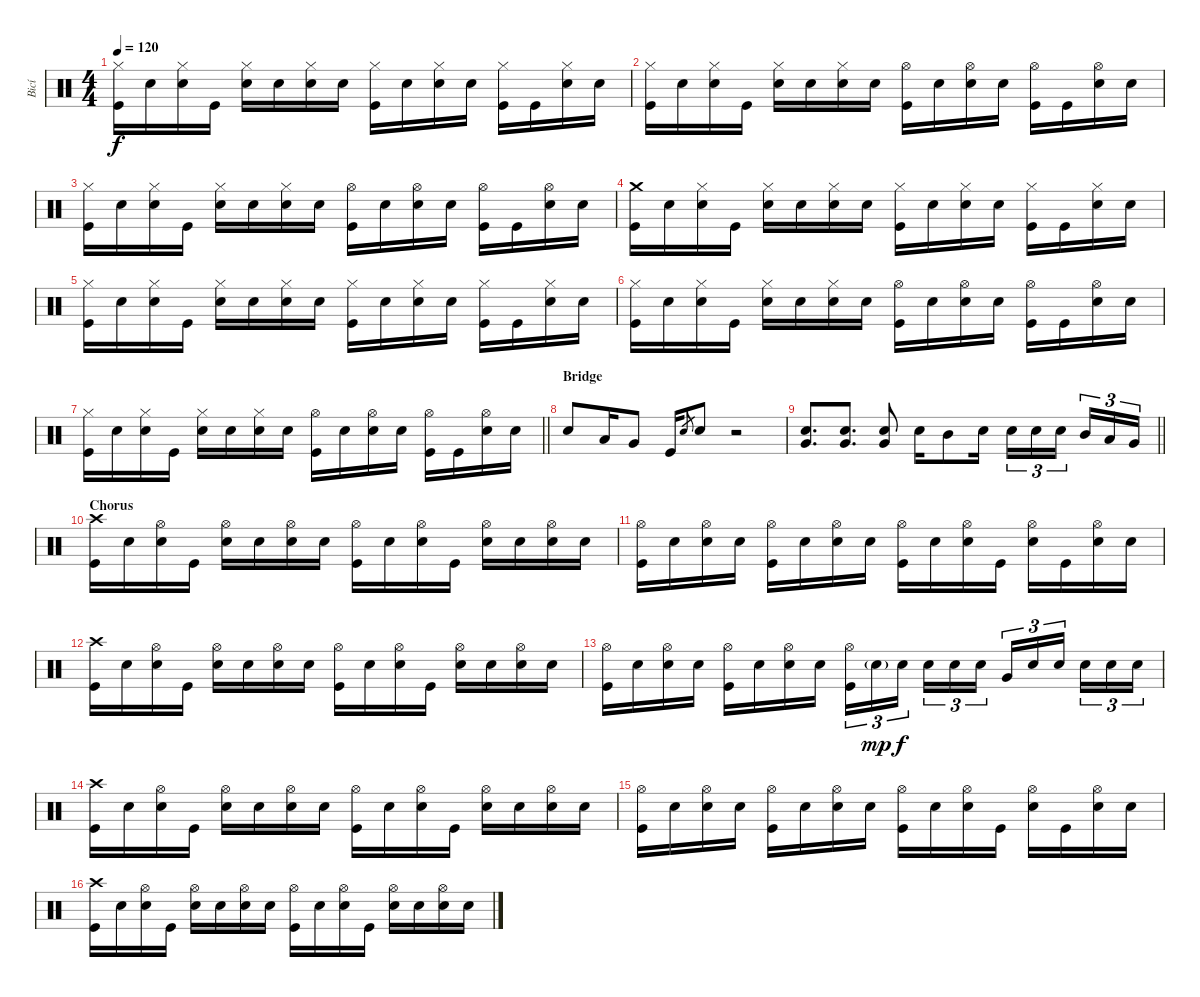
\track ("Bicí" "Bicí") {instrument percussion}
\staff {score}
\articulation defaults
\ts (4 4)
\tempo 120
\clef neutral
\ks c
("Hi-Hat (closed)" "Kick (hit)").16{dy f} "Snare (hit)".16 ("Hi-Hat (closed)" "Electric Snare (hit)").16 "Kick (hit)".16 ("Hi-Hat (closed)" "Snare (hit)").16 "Snare (hit)".16 ("Hi-Hat (closed)" "Electric Snare (hit)").16 "Snare (hit)".16 ("Hi-Hat (closed)" "Kick (hit)").16 "Snare (hit)".16 ("Hi-Hat (closed)" "Electric Snare (hit)").16 "Snare (hit)".16 ("Hi-Hat (closed)" "Kick (hit)").16 "Kick (hit)".16 ("Hi-Hat (closed)" "Electric Snare (hit)").16 "Snare (hit)".16 |
("Hi-Hat (closed)" "Kick (hit)").16 "Snare (hit)".16 ("Hi-Hat (closed)" "Electric Snare (hit)").16 "Kick (hit)".16 ("Hi-Hat (closed)" "Snare (hit)").16 "Snare (hit)".16 ("Hi-Hat (closed)" "Electric Snare (hit)").16 "Snare (hit)".16 ("Hi-Hat (open)" "Kick (hit)").16 "Snare (hit)".16 ("Hi-Hat (open)" "Electric Snare (hit)").16 "Snare (hit)".16 ("Hi-Hat (open)" "Kick (hit)").16 "Kick (hit)".16 ("Hi-Hat (open)" "Electric Snare (hit)").16 "Snare (hit)".16 |
("Hi-Hat (closed)" "Kick (hit)").16 "Snare (hit)".16 ("Hi-Hat (closed)" "Electric Snare (hit)").16 "Kick (hit)".16 ("Hi-Hat (closed)" "Snare (hit)").16 "Snare (hit)".16 ("Hi-Hat (closed)" "Electric Snare (hit)").16 "Snare (hit)".16 ("Hi-Hat (open)" "Kick (hit)").16 "Snare (hit)".16 ("Hi-Hat (open)" "Electric Snare (hit)").16 "Snare (hit)".16 ("Hi-Hat (open)" "Kick (hit)").16 "Kick (hit)".16 ("Hi-Hat (open)" "Electric Snare (hit)").16 "Snare (hit)".16 |
("Crash medium (hit)" "Kick (hit)").16 "Snare (hit)".16 ("Hi-Hat (closed)" "Electric Snare (hit)").16 "Kick (hit)".16 ("Hi-Hat (closed)" "Snare (hit)").16 "Snare (hit)".16 ("Hi-Hat (closed)" "Electric Snare (hit)").16 "Snare (hit)".16 ("Hi-Hat (closed)" "Kick (hit)").16 "Snare (hit)".16 ("Hi-Hat (closed)" "Electric Snare (hit)").16 "Snare (hit)".16 ("Hi-Hat (closed)" "Kick (hit)").16 "Kick (hit)".16 ("Hi-Hat (closed)" "Electric Snare (hit)").16 "Snare (hit)".16 |
("Hi-Hat (closed)" "Kick (hit)").16 "Snare (hit)".16 ("Hi-Hat (closed)" "Electric Snare (hit)").16 "Kick (hit)".16 ("Hi-Hat (closed)" "Snare (hit)").16 "Snare (hit)".16 ("Hi-Hat (closed)" "Electric Snare (hit)").16 "Snare (hit)".16 ("Hi-Hat (closed)" "Kick (hit)").16 "Snare (hit)".16 ("Hi-Hat (closed)" "Electric Snare (hit)").16 "Snare (hit)".16 ("Hi-Hat (closed)" "Kick (hit)").16 "Kick (hit)".16 ("Hi-Hat (closed)" "Electric Snare (hit)").16 "Snare (hit)".16 |
("Hi-Hat (closed)" "Kick (hit)").16 "Snare (hit)".16 ("Hi-Hat (closed)" "Electric Snare (hit)").16 "Kick (hit)".16 ("Hi-Hat (closed)" "Snare (hit)").16 "Snare (hit)".16 ("Hi-Hat (closed)" "Electric Snare (hit)").16 "Snare (hit)".16 ("Hi-Hat (open)" "Kick (hit)").16 "Snare (hit)".16 ("Hi-Hat (open)" "Electric Snare (hit)").16 "Snare (hit)".16 ("Hi-Hat (open)" "Kick (hit)").16 "Kick (hit)".16 ("Hi-Hat (open)" "Electric Snare (hit)").16 "Snare (hit)".16 |
\barLineRight lightlight
("Hi-Hat (closed)" "Kick (hit)").16 "Snare (hit)".16 ("Hi-Hat (closed)" "Electric Snare (hit)").16 "Kick (hit)".16 ("Hi-Hat (closed)" "Snare (hit)").16 "Snare (hit)".16 ("Hi-Hat (closed)" "Electric Snare (hit)").16 "Snare (hit)".16 ("Hi-Hat (open)" "Kick (hit)").16 "Snare (hit)".16 ("Hi-Hat (open)" "Electric Snare (hit)").16 "Snare (hit)".16 ("Hi-Hat (open)" "Kick (hit)").16 "Kick (hit)".16 ("Hi-Hat (open)" "Electric Snare (hit)").16 "Snare (hit)".16 |
\section ("" "Bridge")
"Electric Snare (hit)".8 "Low Tom (hit)".16 "Very Low Tom (hit)".8 "Kick (hit)".16 "Electric Snare (hit)".8{gr} "Electric Snare (hit)".8 r.2 |
\barLineRight lightlight
("Very Low Tom (hit)" "Electric Snare (hit)").8{d} ("Very Low Tom (hit)" "Electric Snare (hit)").8{d} ("Very Low Tom (hit)" "Electric Snare (hit)").8 "Electric Snare (hit)".16 "Mid Tom (hit)".8 "Electric Snare (hit)".16 "Electric Snare (hit)".16{tu (3 2)} "Electric Snare (hit)".16{tu (3 2)} "Electric Snare (hit)".16{tu (3 2) beam splitsecondary} "Mid Tom (hit)".16{tu (3 2)} "Low Tom (hit)".16{tu (3 2)} "Very Low Tom (hit)".16{tu (3 2)} |
\section ("" "Chorus")
("Crash high (hit)" "Kick (hit)").16 "Snare (hit)".16 ("Hi-Hat (open)" "Electric Snare (hit)").16 "Kick (hit)".16 ("Hi-Hat (open)" "Snare (hit)").16 "Snare (hit)".16 ("Hi-Hat (open)" "Electric Snare (hit)").16 "Snare (hit)".16 ("Hi-Hat (open)" "Kick (hit)").16 "Snare (hit)".16 ("Hi-Hat (open)" "Electric Snare (hit)").16 "Kick (hit)".16 ("Hi-Hat (open)" "Snare (hit)").16 "Snare (hit)".16 ("Hi-Hat (open)" "Electric Snare (hit)").16 "Snare (hit)".16 |
("Hi-Hat (open)" "Kick (hit)").16 "Snare (hit)".16 ("Hi-Hat (open)" "Electric Snare (hit)").16 "Snare (hit)".16 ("Hi-Hat (open)" "Kick (hit)").16 "Snare (hit)".16 ("Hi-Hat (open)" "Electric Snare (hit)").16 "Snare (hit)".16 ("Hi-Hat (open)" "Kick (hit)").16 "Snare (hit)".16 ("Hi-Hat (open)" "Electric Snare (hit)").16 "Kick (hit)".16 ("Hi-Hat (open)" "Snare (hit)").16 "Kick (hit)".16 ("Hi-Hat (open)" "Electric Snare (hit)").16 "Snare (hit)".16 |
("Crash high (hit)" "Kick (hit)").16 "Snare (hit)".16 ("Hi-Hat (open)" "Electric Snare (hit)").16 "Kick (hit)".16 ("Hi-Hat (open)" "Snare (hit)").16 "Snare (hit)".16 ("Hi-Hat (open)" "Electric Snare (hit)").16 "Snare (hit)".16 ("Hi-Hat (open)" "Kick (hit)").16 "Snare (hit)".16 ("Hi-Hat (open)" "Electric Snare (hit)").16 "Kick (hit)".16 ("Hi-Hat (open)" "Snare (hit)").16 "Snare (hit)".16 ("Hi-Hat (open)" "Electric Snare (hit)").16 "Snare (hit)".16 |
("Hi-Hat (open)" "Kick (hit)").16 "Snare (hit)".16 ("Hi-Hat (open)" "Electric Snare (hit)").16 "Snare (hit)".16 ("Hi-Hat (open)" "Kick (hit)").16 "Snare (hit)".16 ("Hi-Hat (open)" "Electric Snare (hit)").16 "Snare (hit)".16 ("Hi-Hat (open)" "Kick (hit)").16{tu (3 2)} "Electric Snare (hit)"{g}.16{tu (3 2) dy mp} "Electric Snare (hit)".16{tu (3 2) dy f beam splitsecondary} "Electric Snare (hit)".16{tu (3 2)} "Electric Snare (hit)".16{tu (3 2)} "Electric Snare (hit)".16{tu (3 2)} "Very Low Tom (hit)".16{tu (3 2)} "Electric Snare (hit)".16{tu (3 2)} "Electric Snare (hit)".16{tu (3 2) beam splitsecondary} "Electric Snare (hit)".16{tu (3 2)} "Electric Snare (hit)".16{tu (3 2)} "Electric Snare (hit)".16{tu (3 2)} |
("Crash high (hit)" "Kick (hit)").16 "Snare (hit)".16 ("Hi-Hat (open)" "Electric Snare (hit)").16 "Kick (hit)".16 ("Hi-Hat (open)" "Snare (hit)").16 "Snare (hit)".16 ("Hi-Hat (open)" "Electric Snare (hit)").16 "Snare (hit)".16 ("Hi-Hat (open)" "Kick (hit)").16 "Snare (hit)".16 ("Hi-Hat (open)" "Electric Snare (hit)").16 "Kick (hit)".16 ("Hi-Hat (open)" "Snare (hit)").16 "Snare (hit)".16 ("Hi-Hat (open)" "Electric Snare (hit)").16 "Snare (hit)".16 |
("Hi-Hat (open)" "Kick (hit)").16 "Snare (hit)".16 ("Hi-Hat (open)" "Electric Snare (hit)").16 "Snare (hit)".16 ("Hi-Hat (open)" "Kick (hit)").16 "Snare (hit)".16 ("Hi-Hat (open)" "Electric Snare (hit)").16 "Snare (hit)".16 ("Hi-Hat (open)" "Kick (hit)").16 "Snare (hit)".16 ("Hi-Hat (open)" "Electric Snare (hit)").16 "Kick (hit)".16 ("Hi-Hat (open)" "Snare (hit)").16 "Kick (hit)".16 ("Hi-Hat (open)" "Electric Snare (hit)").16 "Snare (hit)".16 |
("Crash high (hit)" "Kick (hit)").16 "Snare (hit)".16 ("Hi-Hat (open)" "Electric Snare (hit)").16 "Kick (hit)".16 ("Hi-Hat (open)" "Snare (hit)").16 "Snare (hit)".16 ("Hi-Hat (open)" "Electric Snare (hit)").16 "Snare (hit)".16 ("Hi-Hat (open)" "Kick (hit)").16 "Snare (hit)".16 ("Hi-Hat (open)" "Electric Snare (hit)").16 "Kick (hit)".16 ("Hi-Hat (open)" "Snare (hit)").16 "Snare (hit)".16 ("Hi-Hat (open)" "Electric Snare (hit)").16 "Snare (hit)".16
